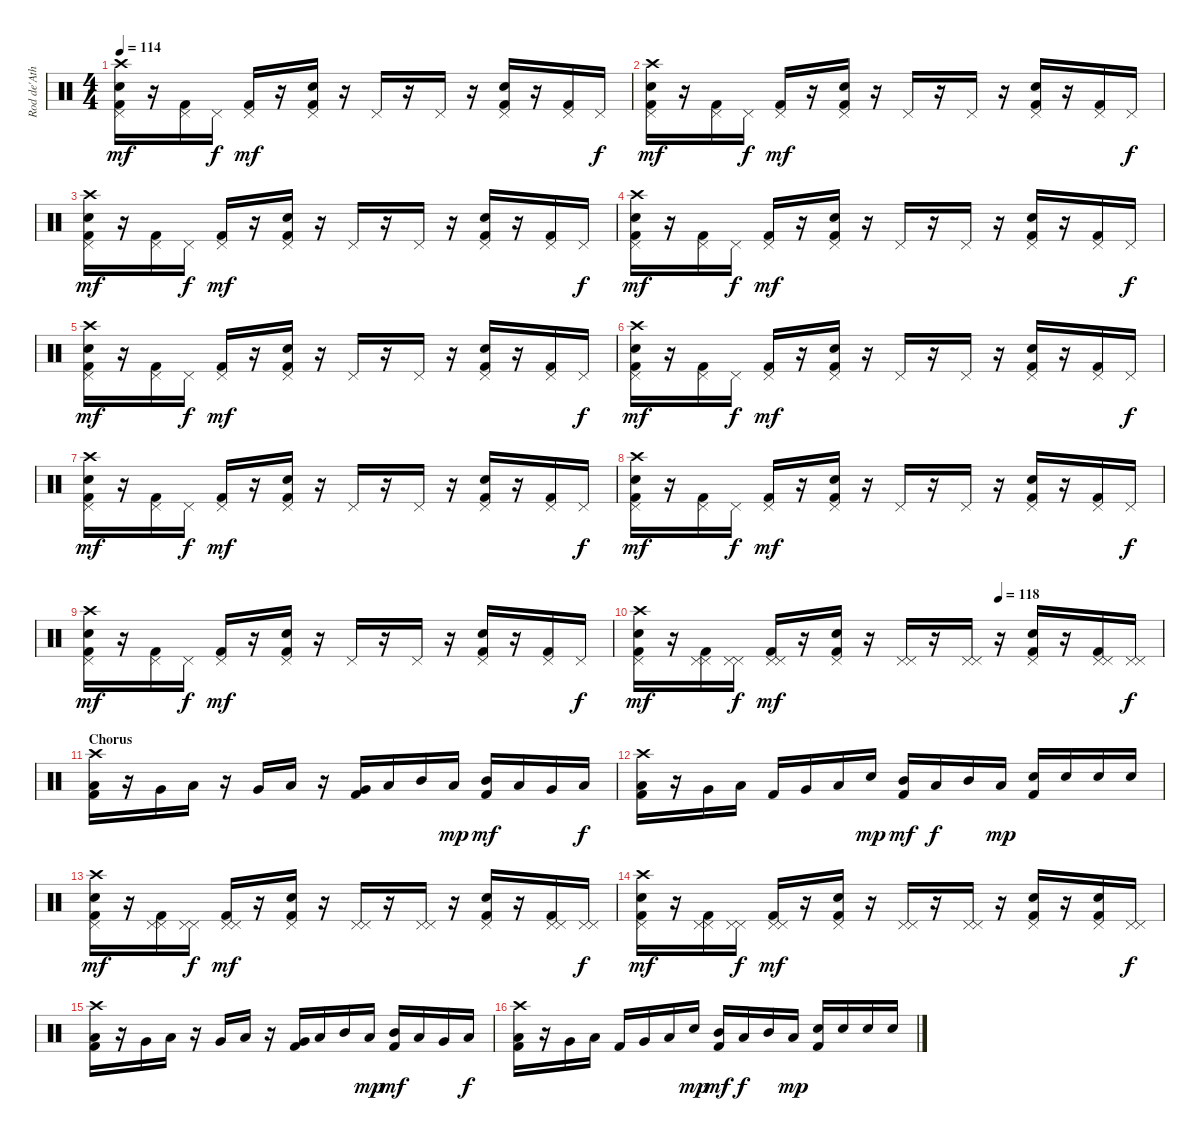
\track ("Rod de'Ath" "Rod de'Ath") {instrument percussion}
\staff {score}
\articulation defaults
\ts (4 4)
\tempo 114
\clef neutral
\ks c
("Crash high (hit)" "Snare (hit) 2" "Pedal Hi-Hat (hit)" "Kick (hit) 2").16{dy mf} r.16 ("Pedal Hi-Hat (hit)" "Kick (hit) 2").16 "Pedal Hi-Hat (hit)".16{dy f} ("Pedal Hi-Hat (hit)" "Kick (hit) 2").16{dy mf} r.16 ("Snare (hit) 2" "Pedal Hi-Hat (hit)" "Kick (hit) 2").16 r.16 "Pedal Hi-Hat (hit)".16 r.16 "Pedal Hi-Hat (hit)".16 r.16 ("Snare (hit) 2" "Pedal Hi-Hat (hit)" "Kick (hit) 2").16 r.16 ("Pedal Hi-Hat (hit)" "Kick (hit) 2").16 "Pedal Hi-Hat (hit)".16{dy f} |
("Crash high (hit)" "Snare (hit) 2" "Pedal Hi-Hat (hit)" "Kick (hit) 2").16{dy mf} r.16 ("Pedal Hi-Hat (hit)" "Kick (hit) 2").16 "Pedal Hi-Hat (hit)".16{dy f} ("Pedal Hi-Hat (hit)" "Kick (hit) 2").16{dy mf} r.16 ("Snare (hit) 2" "Pedal Hi-Hat (hit)" "Kick (hit) 2").16 r.16 "Pedal Hi-Hat (hit)".16 r.16 "Pedal Hi-Hat (hit)".16 r.16 ("Snare (hit) 2" "Pedal Hi-Hat (hit)" "Kick (hit) 2").16 r.16 ("Pedal Hi-Hat (hit)" "Kick (hit) 2").16 "Pedal Hi-Hat (hit)".16{dy f} |
("Crash high (hit)" "Snare (hit) 2" "Pedal Hi-Hat (hit)" "Kick (hit) 2").16{dy mf} r.16 ("Pedal Hi-Hat (hit)" "Kick (hit) 2").16 "Pedal Hi-Hat (hit)".16{dy f} ("Pedal Hi-Hat (hit)" "Kick (hit) 2").16{dy mf} r.16 ("Snare (hit) 2" "Pedal Hi-Hat (hit)" "Kick (hit) 2").16 r.16 "Pedal Hi-Hat (hit)".16 r.16 "Pedal Hi-Hat (hit)".16 r.16 ("Snare (hit) 2" "Pedal Hi-Hat (hit)" "Kick (hit) 2").16 r.16 ("Pedal Hi-Hat (hit)" "Kick (hit) 2").16 "Pedal Hi-Hat (hit)".16{dy f} |
("Crash high (hit)" "Snare (hit) 2" "Pedal Hi-Hat (hit)" "Kick (hit) 2").16{dy mf} r.16 ("Pedal Hi-Hat (hit)" "Kick (hit) 2").16 "Pedal Hi-Hat (hit)".16{dy f} ("Pedal Hi-Hat (hit)" "Kick (hit) 2").16{dy mf} r.16 ("Snare (hit) 2" "Pedal Hi-Hat (hit)" "Kick (hit) 2").16 r.16 "Pedal Hi-Hat (hit)".16 r.16 "Pedal Hi-Hat (hit)".16 r.16 ("Snare (hit) 2" "Pedal Hi-Hat (hit)" "Kick (hit) 2").16 r.16 ("Pedal Hi-Hat (hit)" "Kick (hit) 2").16 "Pedal Hi-Hat (hit)".16{dy f} |
("Crash high (hit)" "Snare (hit) 2" "Pedal Hi-Hat (hit)" "Kick (hit) 2").16{dy mf} r.16 ("Pedal Hi-Hat (hit)" "Kick (hit) 2").16 "Pedal Hi-Hat (hit)".16{dy f} ("Pedal Hi-Hat (hit)" "Kick (hit) 2").16{dy mf} r.16 ("Snare (hit) 2" "Pedal Hi-Hat (hit)" "Kick (hit) 2").16 r.16 "Pedal Hi-Hat (hit)".16 r.16 "Pedal Hi-Hat (hit)".16 r.16 ("Snare (hit) 2" "Pedal Hi-Hat (hit)" "Kick (hit) 2").16 r.16 ("Pedal Hi-Hat (hit)" "Kick (hit) 2").16 "Pedal Hi-Hat (hit)".16{dy f} |
("Crash high (hit)" "Snare (hit) 2" "Pedal Hi-Hat (hit)" "Kick (hit) 2").16{dy mf} r.16 ("Pedal Hi-Hat (hit)" "Kick (hit) 2").16 "Pedal Hi-Hat (hit)".16{dy f} ("Pedal Hi-Hat (hit)" "Kick (hit) 2").16{dy mf} r.16 ("Snare (hit) 2" "Pedal Hi-Hat (hit)" "Kick (hit) 2").16 r.16 "Pedal Hi-Hat (hit)".16 r.16 "Pedal Hi-Hat (hit)".16 r.16 ("Snare (hit) 2" "Pedal Hi-Hat (hit)" "Kick (hit) 2").16 r.16 ("Pedal Hi-Hat (hit)" "Kick (hit) 2").16 "Pedal Hi-Hat (hit)".16{dy f} |
("Crash high (hit)" "Snare (hit) 2" "Pedal Hi-Hat (hit)" "Kick (hit) 2").16{dy mf} r.16 ("Pedal Hi-Hat (hit)" "Kick (hit) 2").16 "Pedal Hi-Hat (hit)".16{dy f} ("Pedal Hi-Hat (hit)" "Kick (hit) 2").16{dy mf} r.16 ("Snare (hit) 2" "Pedal Hi-Hat (hit)" "Kick (hit) 2").16 r.16 "Pedal Hi-Hat (hit)".16 r.16 "Pedal Hi-Hat (hit)".16 r.16 ("Snare (hit) 2" "Pedal Hi-Hat (hit)" "Kick (hit) 2").16 r.16 ("Pedal Hi-Hat (hit)" "Kick (hit) 2").16 "Pedal Hi-Hat (hit)".16{dy f} |
("Crash high (hit)" "Snare (hit) 2" "Pedal Hi-Hat (hit)" "Kick (hit) 2").16{dy mf} r.16 ("Pedal Hi-Hat (hit)" "Kick (hit) 2").16 "Pedal Hi-Hat (hit)".16{dy f} ("Pedal Hi-Hat (hit)" "Kick (hit) 2").16{dy mf} r.16 ("Snare (hit) 2" "Pedal Hi-Hat (hit)" "Kick (hit) 2").16 r.16 "Pedal Hi-Hat (hit)".16 r.16 "Pedal Hi-Hat (hit)".16 r.16 ("Snare (hit) 2" "Pedal Hi-Hat (hit)" "Kick (hit) 2").16 r.16 ("Pedal Hi-Hat (hit)" "Kick (hit) 2").16 "Pedal Hi-Hat (hit)".16{dy f} |
("Crash high (hit)" "Snare (hit) 2" "Pedal Hi-Hat (hit)" "Kick (hit) 2").16{dy mf} r.16 ("Pedal Hi-Hat (hit)" "Kick (hit) 2").16 "Pedal Hi-Hat (hit)".16{dy f} ("Pedal Hi-Hat (hit)" "Kick (hit) 2").16{dy mf} r.16 ("Snare (hit) 2" "Pedal Hi-Hat (hit)" "Kick (hit) 2").16 r.16 "Pedal Hi-Hat (hit)".16 r.16 "Pedal Hi-Hat (hit)".16 r.16 ("Snare (hit) 2" "Pedal Hi-Hat (hit)" "Kick (hit) 2").16 r.16 ("Pedal Hi-Hat (hit)" "Kick (hit) 2").16 "Pedal Hi-Hat (hit)".16{dy f} |
\tempo (118 0.6875)
("Crash high (hit)" "Snare (hit) 2" "Pedal Hi-Hat (hit)" "Kick (hit) 2").16{dy mf} r.16 ("Pedal Hi-Hat (hit)" "Pedal Hi-Hat (hit)" "Kick (hit) 2").16 ("Pedal Hi-Hat (hit)" "Pedal Hi-Hat (hit)").16{dy f} ("Pedal Hi-Hat (hit)" "Pedal Hi-Hat (hit)" "Kick (hit) 2").16{dy mf} r.16 ("Snare (hit) 2" "Pedal Hi-Hat (hit)" "Kick (hit) 2").16 r.16 ("Pedal Hi-Hat (hit)" "Pedal Hi-Hat (hit)").16 r.16 ("Pedal Hi-Hat (hit)" "Pedal Hi-Hat (hit)").16 r.16 ("Snare (hit) 2" "Pedal Hi-Hat (hit)" "Kick (hit) 2").16 r.16 ("Pedal Hi-Hat (hit)" "Pedal Hi-Hat (hit)" "Kick (hit) 2").16 ("Pedal Hi-Hat (hit)" "Pedal Hi-Hat (hit)").16{dy f} |
\section ("" "Chorus")
("Crash high (hit)" "Low Tom (hit)" "Kick (hit) 2").16 r.16 "Very Low Tom (hit)".16 "Low Tom (hit)".16 r.16 "Very Low Tom (hit)".16 "Low Tom (hit)".16 r.16 ("Very Low Tom (hit)" "Kick (hit) 2").16 "Low Tom (hit)".16 "Mid Tom (hit)".16 "Low Tom (hit)".16{dy mp} ("Mid Tom (hit)" "Kick (hit) 2").16{dy mf} "Low Tom (hit)".16 "Very Low Tom (hit)".16 "Low Tom (hit)".16{dy f} |
("Crash high (hit)" "Low Tom (hit)" "Kick (hit) 2").16 r.16 "Very Low Tom (hit)".16 "Low Tom (hit)".16 "Kick (hit) 2".16 "Very Low Tom (hit)".16 "Low Tom (hit)".16 "Snare (hit) 2".16{dy mp} ("Mid Tom (hit)" "Kick (hit) 2").16{dy mf} "Low Tom (hit)".16{dy f} "Mid Tom (hit)".16 "Low Tom (hit)".16{dy mp} ("Snare (hit) 2" "Kick (hit) 2").16 "Snare (hit) 2".16 "Snare (hit) 2".16 "Snare (hit) 2".16 |
("Crash high (hit)" "Snare (hit) 2" "Pedal Hi-Hat (hit)" "Kick (hit) 2").16{dy mf} r.16 ("Pedal Hi-Hat (hit)" "Pedal Hi-Hat (hit)" "Kick (hit) 2").16 ("Pedal Hi-Hat (hit)" "Pedal Hi-Hat (hit)").16{dy f} ("Pedal Hi-Hat (hit)" "Pedal Hi-Hat (hit)" "Kick (hit) 2").16{dy mf} r.16 ("Snare (hit) 2" "Pedal Hi-Hat (hit)" "Kick (hit) 2").16 r.16 ("Pedal Hi-Hat (hit)" "Pedal Hi-Hat (hit)").16 r.16 ("Pedal Hi-Hat (hit)" "Pedal Hi-Hat (hit)").16 r.16 ("Snare (hit) 2" "Pedal Hi-Hat (hit)" "Kick (hit) 2").16 r.16 ("Pedal Hi-Hat (hit)" "Pedal Hi-Hat (hit)" "Kick (hit) 2").16 ("Pedal Hi-Hat (hit)" "Pedal Hi-Hat (hit)").16{dy f} |
("Crash high (hit)" "Snare (hit) 2" "Pedal Hi-Hat (hit)" "Kick (hit) 2").16{dy mf} r.16 ("Pedal Hi-Hat (hit)" "Pedal Hi-Hat (hit)" "Kick (hit) 2").16 ("Pedal Hi-Hat (hit)" "Pedal Hi-Hat (hit)").16{dy f} ("Pedal Hi-Hat (hit)" "Pedal Hi-Hat (hit)" "Kick (hit) 2").16{dy mf} r.16 ("Snare (hit) 2" "Pedal Hi-Hat (hit)" "Kick (hit) 2").16 r.16 ("Pedal Hi-Hat (hit)" "Pedal Hi-Hat (hit)").16 r.16 ("Pedal Hi-Hat (hit)" "Pedal Hi-Hat (hit)").16 r.16 ("Snare (hit) 2" "Pedal Hi-Hat (hit)" "Kick (hit) 2").16 r.16 ("Snare (hit) 2" "Pedal Hi-Hat (hit)" "Kick (hit) 2").16 ("Pedal Hi-Hat (hit)" "Pedal Hi-Hat (hit)").16{dy f} |
("Crash high (hit)" "Low Tom (hit)" "Kick (hit) 2").16 r.16 "Very Low Tom (hit)".16 "Low Tom (hit)".16 r.16 "Very Low Tom (hit)".16 "Low Tom (hit)".16 r.16 ("Very Low Tom (hit)" "Kick (hit) 2").16 "Low Tom (hit)".16 "Mid Tom (hit)".16 "Low Tom (hit)".16{dy mp} ("Mid Tom (hit)" "Kick (hit) 2").16{dy mf} "Low Tom (hit)".16 "Very Low Tom (hit)".16 "Low Tom (hit)".16{dy f} |
("Crash high (hit)" "Low Tom (hit)" "Kick (hit) 2").16 r.16 "Very Low Tom (hit)".16 "Low Tom (hit)".16 "Kick (hit) 2".16 "Very Low Tom (hit)".16 "Low Tom (hit)".16 "Snare (hit) 2".16{dy mp} ("Mid Tom (hit)" "Kick (hit) 2").16{dy mf} "Low Tom (hit)".16{dy f} "Mid Tom (hit)".16 "Low Tom (hit)".16{dy mp} ("Snare (hit) 2" "Kick (hit) 2").16 "Snare (hit) 2".16 "Snare (hit) 2".16 "Snare (hit) 2".16
